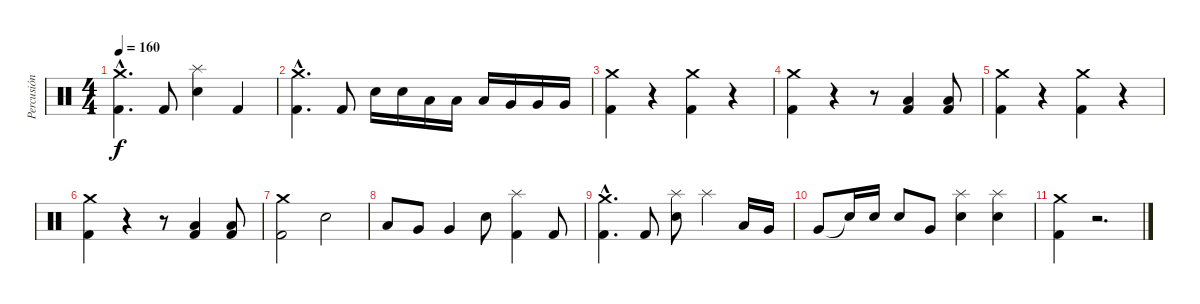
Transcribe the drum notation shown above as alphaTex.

\track ("Percusión" "Percusión") {instrument percussion}
\staff {score}
\articulation defaults
\ts (4 4)
\tempo 160
\clef neutral
\ks c
("Crash medium (hit)"{hac} "Kick (hit) 2"{hac}).4{d dy f} "Kick (hit) 2".8 ("Splash (hit)" "Electric Snare (hit)").4 "Kick (hit) 2".4 |
("Crash medium (hit)"{hac} "Kick (hit) 2"{hac}).4{d} "Kick (hit) 2".8 "Electric Snare (hit)".16 "Electric Snare (hit)".16 "Low Tom (hit)".16 "Low Tom (hit)".16 "Low Tom (hit)".16 "Very Low Tom (hit)".16 "Very Low Tom (hit)".16 "Very Low Tom (hit)".16 |
("Crash medium (hit)" "Kick (hit) 2").4 r.4 ("Crash medium (hit)" "Kick (hit) 2").4 r.4 |
("Crash medium (hit)" "Kick (hit) 2").4 r.4 r.8 ("Low Floor Tom (hit)" "Kick (hit) 2").4 ("Low Floor Tom (hit)" "Kick (hit) 2").8 |
("Crash medium (hit)" "Kick (hit) 2").4 r.4 ("Crash medium (hit)" "Kick (hit) 2").4 r.4 |
("Crash medium (hit)" "Kick (hit) 2").4 r.4 r.8 ("Low Floor Tom (hit)" "Kick (hit) 2").4 ("Low Floor Tom (hit)" "Kick (hit) 2").8 |
("Crash medium (hit)" "Kick (hit) 2").2 "Electric Snare (hit)".2 |
"Low Tom (hit)".8 "Very Low Tom (hit)".8 "Very Low Tom (hit)".4 "Electric Snare (hit)".8 ("Splash (hit)" "Kick (hit) 2").4 "Kick (hit) 2".8 |
("Crash medium (hit)"{hac} "Kick (hit) 2"{hac}).4{d} "Kick (hit) 2".8 ("Splash (hit)" "Electric Snare (hit)").8 "Splash (hit)".4 "Low Tom (hit)".16 "Very Low Tom (hit)".16 |
"Very Low Tom (hit)".8 "Electric Snare (hit)"{t}.16 "Electric Snare (hit)".16 "Electric Snare (hit)".8 "Very Low Tom (hit)".8 ("Splash (hit)" "Electric Snare (hit)").4 ("Splash (hit)" "Electric Snare (hit)").4 |
("Crash medium (hit)" "Kick (hit) 2").4 r.2{d}
